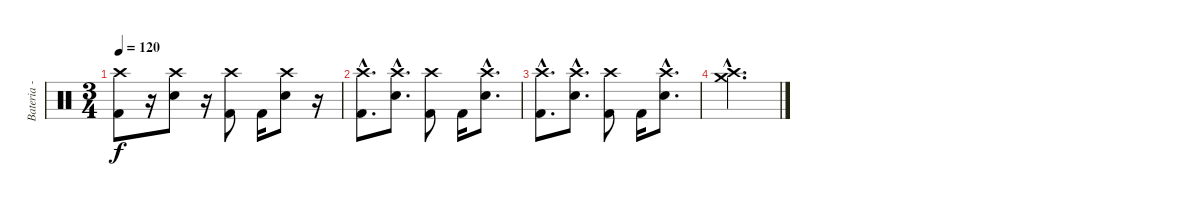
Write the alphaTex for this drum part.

\track ("Bateria - Larzon" "Bateria - ") {instrument percussion}
\staff {score}
\articulation defaults
\ts (3 4)
\tempo 120
\clef neutral
\ks c
("Kick (hit) 2" "Crash high (hit)").8{dy f} r.16 ("Snare (hit) 2" "Crash high (hit)").8 r.16 ("Kick (hit) 2" "Crash high (hit)").8 "Kick (hit) 2".16 ("Snare (hit) 2" "Crash high (hit)").8 r.16 |
("Kick (hit) 2"{hac} "Crash high (hit)"{hac}).8{d} ("Snare (hit) 2"{hac} "Crash high (hit)"{hac}).8{d} ("Kick (hit) 2" "Crash high (hit)").8 "Kick (hit) 2".16 ("Snare (hit) 2"{hac} "Crash high (hit)"{hac}).8{d} |
("Kick (hit) 2"{hac} "Crash high (hit)"{hac}).8{d} ("Snare (hit) 2"{hac} "Crash high (hit)"{hac}).8{d} ("Kick (hit) 2" "Crash high (hit)").8 "Kick (hit) 2".16 ("Snare (hit) 2"{hac} "Crash high (hit)"{hac}).8{d} |
("Crash medium (hit)"{hac} "Crash high (hit)"{hac}).2{d}
